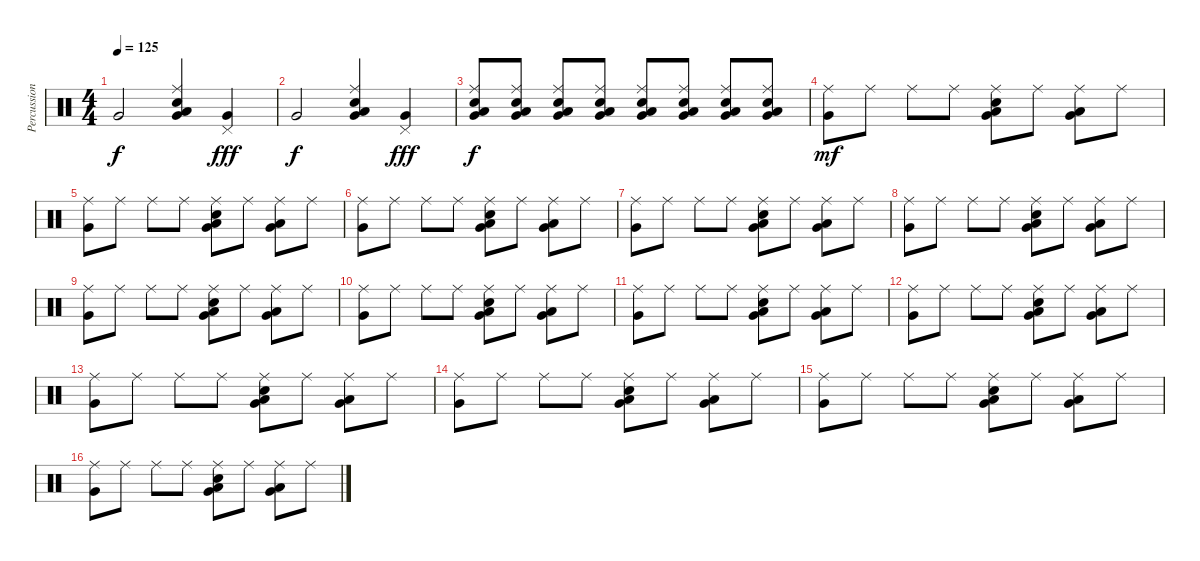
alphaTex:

\track ("Percussion" "Percussion") {instrument percussion}
\staff {score}
\articulation defaults
\ts (4 4)
\tempo 125
\clef neutral
\ks c "Very Low Tom (hit)".2{dy f}
("Very Low Tom (hit)" "Low Floor Tom (hit)" "Ride (middle)" "Snare (hit) 2").4 ("Very Low Tom (hit)" "Pedal Hi-Hat (hit)").4{dy fff} |
"Very Low Tom (hit)".2{dy f} ("Very Low Tom (hit)" "Low Floor Tom (hit)" "Ride (middle)" "Snare (hit) 2").4 ("Very Low Tom (hit)" "Pedal Hi-Hat (hit)").4{dy fff} |
("Very Low Tom (hit)" "Low Floor Tom (hit)" "Ride (middle)" "Snare (hit) 2").8{dy f} ("Very Low Tom (hit)" "Low Floor Tom (hit)" "Ride (middle)" "Snare (hit) 2").8 ("Very Low Tom (hit)" "Low Floor Tom (hit)" "Ride (middle)" "Snare (hit) 2").8 ("Very Low Tom (hit)" "Low Floor Tom (hit)" "Ride (middle)" "Snare (hit) 2").8 ("Very Low Tom (hit)" "Low Floor Tom (hit)" "Ride (middle)" "Snare (hit) 2").8 ("Very Low Tom (hit)" "Low Floor Tom (hit)" "Ride (middle)" "Snare (hit) 2").8 ("Very Low Tom (hit)" "Low Floor Tom (hit)" "Ride (middle)" "Snare (hit) 2").8 ("Very Low Tom (hit)" "Low Floor Tom (hit)" "Ride (middle)" "Snare (hit) 2").8 |
("Very Low Tom (hit)" "Ride (middle)").8{dy mf} "Ride (middle)".8 "Ride (middle)".8 "Ride (middle)".8 ("Very Low Tom (hit)" "Snare (hit) 2" "Low Floor Tom (hit)" "Ride (middle)").8 "Ride (middle)".8 ("Very Low Tom (hit)" "Low Floor Tom (hit)" "Ride (middle)").8 "Ride (middle)".8 |
("Very Low Tom (hit)" "Ride (middle)").8 "Ride (middle)".8 "Ride (middle)".8 "Ride (middle)".8 ("Very Low Tom (hit)" "Snare (hit) 2" "Low Floor Tom (hit)" "Ride (middle)").8 "Ride (middle)".8 ("Very Low Tom (hit)" "Low Floor Tom (hit)" "Ride (middle)").8 "Ride (middle)".8 |
("Very Low Tom (hit)" "Ride (middle)").8 "Ride (middle)".8 "Ride (middle)".8 "Ride (middle)".8 ("Very Low Tom (hit)" "Snare (hit) 2" "Low Floor Tom (hit)" "Ride (middle)").8 "Ride (middle)".8 ("Very Low Tom (hit)" "Low Floor Tom (hit)" "Ride (middle)").8 "Ride (middle)".8 |
("Very Low Tom (hit)" "Ride (middle)").8 "Ride (middle)".8 "Ride (middle)".8 "Ride (middle)".8 ("Very Low Tom (hit)" "Snare (hit) 2" "Low Floor Tom (hit)" "Ride (middle)").8 "Ride (middle)".8 ("Very Low Tom (hit)" "Low Floor Tom (hit)" "Ride (middle)").8 "Ride (middle)".8 |
("Very Low Tom (hit)" "Ride (middle)").8 "Ride (middle)".8 "Ride (middle)".8 "Ride (middle)".8 ("Very Low Tom (hit)" "Snare (hit) 2" "Low Floor Tom (hit)" "Ride (middle)").8 "Ride (middle)".8 ("Very Low Tom (hit)" "Low Floor Tom (hit)" "Ride (middle)").8 "Ride (middle)".8 |
("Very Low Tom (hit)" "Ride (middle)").8 "Ride (middle)".8 "Ride (middle)".8 "Ride (middle)".8 ("Very Low Tom (hit)" "Snare (hit) 2" "Low Floor Tom (hit)" "Ride (middle)").8 "Ride (middle)".8 ("Very Low Tom (hit)" "Low Floor Tom (hit)" "Ride (middle)").8 "Ride (middle)".8 |
("Very Low Tom (hit)" "Ride (middle)").8 "Ride (middle)".8 "Ride (middle)".8 "Ride (middle)".8 ("Very Low Tom (hit)" "Snare (hit) 2" "Low Floor Tom (hit)" "Ride (middle)").8 "Ride (middle)".8 ("Very Low Tom (hit)" "Low Floor Tom (hit)" "Ride (middle)").8 "Ride (middle)".8 |
("Very Low Tom (hit)" "Ride (middle)").8 "Ride (middle)".8 "Ride (middle)".8 "Ride (middle)".8 ("Very Low Tom (hit)" "Snare (hit) 2" "Low Floor Tom (hit)" "Ride (middle)").8 "Ride (middle)".8 ("Very Low Tom (hit)" "Low Floor Tom (hit)" "Ride (middle)").8 "Ride (middle)".8 |
("Very Low Tom (hit)" "Ride (middle)").8 "Ride (middle)".8 "Ride (middle)".8 "Ride (middle)".8 ("Very Low Tom (hit)" "Snare (hit) 2" "Low Floor Tom (hit)" "Ride (middle)").8 "Ride (middle)".8 ("Very Low Tom (hit)" "Low Floor Tom (hit)" "Ride (middle)").8 "Ride (middle)".8 |
("Very Low Tom (hit)" "Ride (middle)").8 "Ride (middle)".8 "Ride (middle)".8 "Ride (middle)".8 ("Very Low Tom (hit)" "Snare (hit) 2" "Low Floor Tom (hit)" "Ride (middle)").8 "Ride (middle)".8 ("Very Low Tom (hit)" "Low Floor Tom (hit)" "Ride (middle)").8 "Ride (middle)".8 |
("Very Low Tom (hit)" "Ride (middle)").8 "Ride (middle)".8 "Ride (middle)".8 "Ride (middle)".8 ("Very Low Tom (hit)" "Snare (hit) 2" "Low Floor Tom (hit)" "Ride (middle)").8 "Ride (middle)".8 ("Very Low Tom (hit)" "Low Floor Tom (hit)" "Ride (middle)").8 "Ride (middle)".8 |
("Very Low Tom (hit)" "Ride (middle)").8 "Ride (middle)".8 "Ride (middle)".8 "Ride (middle)".8 ("Very Low Tom (hit)" "Snare (hit) 2" "Low Floor Tom (hit)" "Ride (middle)").8 "Ride (middle)".8 ("Very Low Tom (hit)" "Low Floor Tom (hit)" "Ride (middle)").8 "Ride (middle)".8 |
("Very Low Tom (hit)" "Ride (middle)").8 "Ride (middle)".8 "Ride (middle)".8 "Ride (middle)".8 ("Very Low Tom (hit)" "Snare (hit) 2" "Low Floor Tom (hit)" "Ride (middle)").8 "Ride (middle)".8 ("Very Low Tom (hit)" "Low Floor Tom (hit)" "Ride (middle)").8 "Ride (middle)".8
